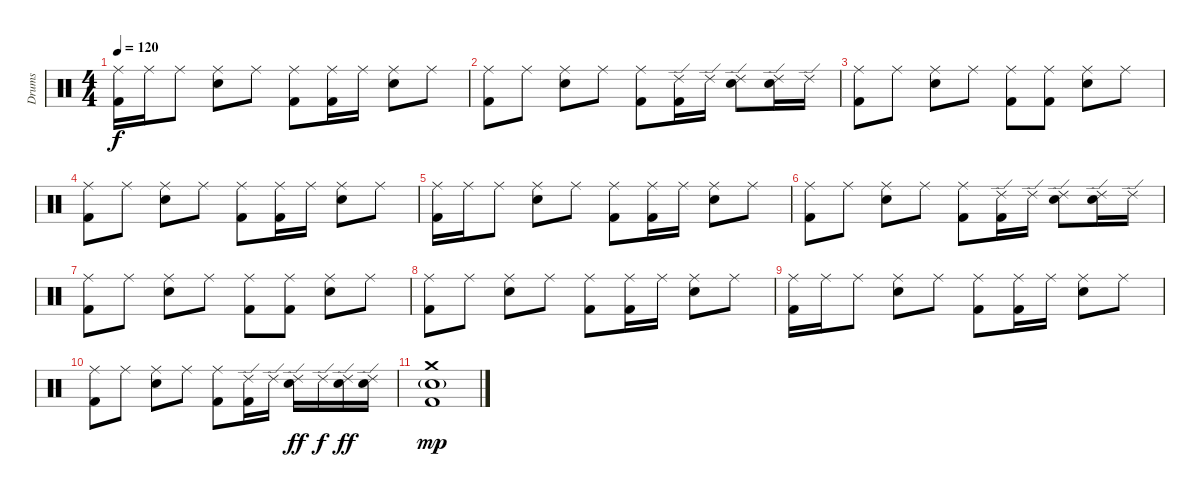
\track ("Drums" "Drums") {instrument percussion}
\staff {score}
\articulation defaults
\ts (4 4)
\tempo 120
\clef neutral
\ks c
("Ride (middle)" "Kick (hit) 2").16{dy f} "Ride (middle)".16 "Ride (middle)".8 ("Ride (middle)" "Electric Snare (hit)").8 "Ride (middle)".8 ("Ride (middle)" "Kick (hit) 2").8 ("Ride (middle)" "Kick (hit) 2").16 "Ride (middle)".16 ("Ride (middle)" "Electric Snare (hit)").8 "Ride (middle)".8 |
("Ride (middle)" "Kick (hit) 2").8 "Ride (middle)".8 ("Ride (middle)" "Electric Snare (hit)").8 "Ride (middle)".8 ("Ride (middle)" "Kick (hit) 2").8 ("Ride (edge) 2" "Kick (hit) 2").16 "Ride (edge) 2".16 ("Ride (edge) 2" "Electric Snare (hit)").8 ("Ride (edge) 2" "Electric Snare (hit)").16 "Ride (edge) 2".16 |
("Ride (middle)" "Kick (hit) 2").8{volume 11} "Ride (middle)".8 ("Ride (middle)" "Electric Snare (hit)").8 "Ride (middle)".8 ("Ride (middle)" "Kick (hit) 2").8 ("Ride (middle)" "Kick (hit) 2").8 ("Ride (middle)" "Electric Snare (hit)").8 "Ride (middle)".8 |
("Ride (middle)" "Kick (hit) 2").8 "Ride (middle)".8 ("Ride (middle)" "Electric Snare (hit)").8 "Ride (middle)".8 ("Ride (middle)" "Kick (hit) 2").8 ("Ride (middle)" "Kick (hit) 2").16 "Ride (middle)".16 ("Ride (middle)" "Electric Snare (hit)").8 "Ride (middle)".8 |
("Ride (middle)" "Kick (hit) 2").16 "Ride (middle)".16 "Ride (middle)".8 ("Ride (middle)" "Electric Snare (hit)").8 "Ride (middle)".8 ("Ride (middle)" "Kick (hit) 2").8 ("Ride (middle)" "Kick (hit) 2").16 "Ride (middle)".16 ("Ride (middle)" "Electric Snare (hit)").8 "Ride (middle)".8 |
("Ride (middle)" "Kick (hit) 2").8 "Ride (middle)".8 ("Ride (middle)" "Electric Snare (hit)").8 "Ride (middle)".8 ("Ride (middle)" "Kick (hit) 2").8 ("Ride (edge) 2" "Kick (hit) 2").16 "Ride (edge) 2".16 ("Ride (edge) 2" "Electric Snare (hit)").8 ("Ride (edge) 2" "Electric Snare (hit)").16 "Ride (edge) 2".16 |
("Ride (middle)" "Kick (hit) 2").8{volume 11} "Ride (middle)".8 ("Ride (middle)" "Electric Snare (hit)").8 "Ride (middle)".8 ("Ride (middle)" "Kick (hit) 2").8 ("Ride (middle)" "Kick (hit) 2").8 ("Ride (middle)" "Electric Snare (hit)").8 "Ride (middle)".8 |
("Ride (middle)" "Kick (hit) 2").8 "Ride (middle)".8 ("Ride (middle)" "Electric Snare (hit)").8 "Ride (middle)".8 ("Ride (middle)" "Kick (hit) 2").8 ("Ride (middle)" "Kick (hit) 2").16 "Ride (middle)".16 ("Ride (middle)" "Electric Snare (hit)").8 "Ride (middle)".8 |
("Ride (middle)" "Kick (hit) 2").16 "Ride (middle)".16 "Ride (middle)".8 ("Ride (middle)" "Electric Snare (hit)").8 "Ride (middle)".8 ("Ride (middle)" "Kick (hit) 2").8 ("Ride (middle)" "Kick (hit) 2").16 "Ride (middle)".16 ("Ride (middle)" "Electric Snare (hit)").8 "Ride (middle)".8 |
("Ride (middle)" "Kick (hit) 2").8 "Ride (middle)".8 ("Ride (middle)" "Electric Snare (hit)").8 "Ride (middle)".8 ("Ride (middle)" "Kick (hit) 2").8 ("Ride (edge) 2" "Kick (hit) 2").16 "Ride (edge) 2".16 ("Ride (edge) 2" "Electric Snare (hit)").16{dy ff} "Ride (edge) 2".16{dy f} ("Ride (edge) 2" "Electric Snare (hit)").16{dy ff} ("Ride (edge) 2" "Electric Snare (hit)").16 |
("Kick (hit) 2" "Electric Snare (hit)"{g} "Crash medium (hit)").1{dy mp}
